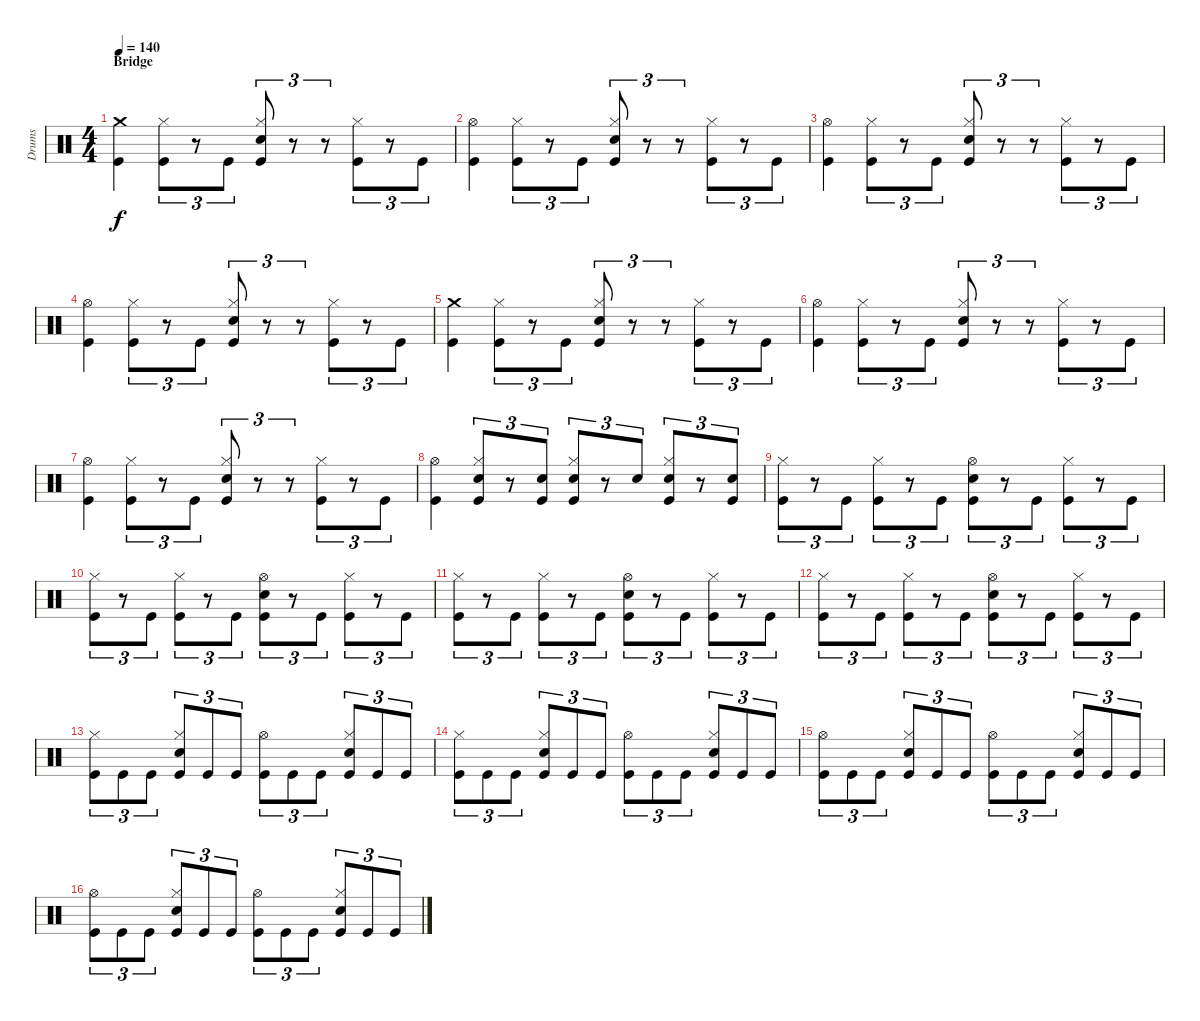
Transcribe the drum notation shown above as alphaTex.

\track ("Drums" "Drums") {instrument percussion}
\staff {score}
\articulation defaults
\ts (4 4)
\section ("" "Bridge")
\tempo 140
\clef neutral
\ks c
("Crash medium (hit)" "Kick (hit)").4{dy f} ("Hi-Hat (closed)" "Kick (hit)").8{tu (3 2)} r.8{tu (3 2)} "Kick (hit)".8{tu (3 2)} ("Hi-Hat (closed)" "Kick (hit)" "Electric Snare (hit)").8{tu (3 2)} r.8{tu (3 2)} r.8{tu (3 2)} ("Hi-Hat (closed)" "Kick (hit)").8{tu (3 2)} r.8{tu (3 2)} "Kick (hit)".8{tu (3 2)} |
("Hi-Hat (open)" "Kick (hit)").4 ("Hi-Hat (closed)" "Kick (hit)").8{tu (3 2)} r.8{tu (3 2)} "Kick (hit)".8{tu (3 2)} ("Hi-Hat (closed)" "Kick (hit)" "Electric Snare (hit)").8{tu (3 2)} r.8{tu (3 2)} r.8{tu (3 2)} ("Hi-Hat (closed)" "Kick (hit)").8{tu (3 2)} r.8{tu (3 2)} "Kick (hit)".8{tu (3 2)} |
("Hi-Hat (open)" "Kick (hit)").4 ("Hi-Hat (closed)" "Kick (hit)").8{tu (3 2)} r.8{tu (3 2)} "Kick (hit)".8{tu (3 2)} ("Hi-Hat (closed)" "Kick (hit)" "Electric Snare (hit)").8{tu (3 2)} r.8{tu (3 2)} r.8{tu (3 2)} ("Hi-Hat (closed)" "Kick (hit)").8{tu (3 2)} r.8{tu (3 2)} "Kick (hit)".8{tu (3 2)} |
("Hi-Hat (open)" "Kick (hit)").4 ("Hi-Hat (closed)" "Kick (hit)").8{tu (3 2)} r.8{tu (3 2)} "Kick (hit)".8{tu (3 2)} ("Hi-Hat (closed)" "Kick (hit)" "Electric Snare (hit)").8{tu (3 2)} r.8{tu (3 2)} r.8{tu (3 2)} ("Hi-Hat (closed)" "Kick (hit)").8{tu (3 2)} r.8{tu (3 2)} "Kick (hit)".8{tu (3 2)} |
("Crash medium (hit)" "Kick (hit)").4 ("Hi-Hat (closed)" "Kick (hit)").8{tu (3 2)} r.8{tu (3 2)} "Kick (hit)".8{tu (3 2)} ("Hi-Hat (closed)" "Kick (hit)" "Electric Snare (hit)").8{tu (3 2)} r.8{tu (3 2)} r.8{tu (3 2)} ("Hi-Hat (closed)" "Kick (hit)").8{tu (3 2)} r.8{tu (3 2)} "Kick (hit)".8{tu (3 2)} |
("Hi-Hat (open)" "Kick (hit)").4 ("Hi-Hat (closed)" "Kick (hit)").8{tu (3 2)} r.8{tu (3 2)} "Kick (hit)".8{tu (3 2)} ("Hi-Hat (closed)" "Kick (hit)" "Electric Snare (hit)").8{tu (3 2)} r.8{tu (3 2)} r.8{tu (3 2)} ("Hi-Hat (closed)" "Kick (hit)").8{tu (3 2)} r.8{tu (3 2)} "Kick (hit)".8{tu (3 2)} |
("Hi-Hat (open)" "Kick (hit)").4 ("Hi-Hat (closed)" "Kick (hit)").8{tu (3 2)} r.8{tu (3 2)} "Kick (hit)".8{tu (3 2)} ("Hi-Hat (closed)" "Kick (hit)" "Electric Snare (hit)").8{tu (3 2)} r.8{tu (3 2)} r.8{tu (3 2)} ("Hi-Hat (closed)" "Kick (hit)").8{tu (3 2)} r.8{tu (3 2)} "Kick (hit)".8{tu (3 2)} |
("Hi-Hat (open)" "Kick (hit)").4 ("Hi-Hat (closed)" "Kick (hit)" "Electric Snare (hit)").8{tu (3 2)} r.8{tu (3 2)} ("Kick (hit)" "Electric Snare (hit)").8{tu (3 2)} ("Hi-Hat (closed)" "Kick (hit)" "Electric Snare (hit)").8{tu (3 2)} r.8{tu (3 2)} "Electric Snare (hit)".8{tu (3 2)} ("Hi-Hat (closed)" "Kick (hit)" "Electric Snare (hit)").8{tu (3 2)} r.8{tu (3 2)} ("Kick (hit)" "Electric Snare (hit)").8{tu (3 2)} |
("Hi-Hat (closed)" "Kick (hit)").8{tu (3 2)} r.8{tu (3 2)} "Kick (hit)".8{tu (3 2)} ("Hi-Hat (closed)" "Kick (hit)").8{tu (3 2)} r.8{tu (3 2)} "Kick (hit)".8{tu (3 2)} ("Hi-Hat (open)" "Electric Snare (hit)" "Kick (hit)").8{tu (3 2)} r.8{tu (3 2)} "Kick (hit)".8{tu (3 2)} ("Hi-Hat (closed)" "Kick (hit)").8{tu (3 2)} r.8{tu (3 2)} "Kick (hit)".8{tu (3 2)} |
("Hi-Hat (closed)" "Kick (hit)").8{tu (3 2)} r.8{tu (3 2)} "Kick (hit)".8{tu (3 2)} ("Hi-Hat (closed)" "Kick (hit)").8{tu (3 2)} r.8{tu (3 2)} "Kick (hit)".8{tu (3 2)} ("Hi-Hat (open)" "Electric Snare (hit)" "Kick (hit)").8{tu (3 2)} r.8{tu (3 2)} "Kick (hit)".8{tu (3 2)} ("Hi-Hat (closed)" "Kick (hit)").8{tu (3 2)} r.8{tu (3 2)} "Kick (hit)".8{tu (3 2)} |
("Hi-Hat (closed)" "Kick (hit)").8{tu (3 2)} r.8{tu (3 2)} "Kick (hit)".8{tu (3 2)} ("Hi-Hat (closed)" "Kick (hit)").8{tu (3 2)} r.8{tu (3 2)} "Kick (hit)".8{tu (3 2)} ("Hi-Hat (open)" "Electric Snare (hit)" "Kick (hit)").8{tu (3 2)} r.8{tu (3 2)} "Kick (hit)".8{tu (3 2)} ("Hi-Hat (closed)" "Kick (hit)").8{tu (3 2)} r.8{tu (3 2)} "Kick (hit)".8{tu (3 2)} |
("Hi-Hat (closed)" "Kick (hit)").8{tu (3 2)} r.8{tu (3 2)} "Kick (hit)".8{tu (3 2)} ("Hi-Hat (closed)" "Kick (hit)").8{tu (3 2)} r.8{tu (3 2)} "Kick (hit)".8{tu (3 2)} ("Hi-Hat (open)" "Electric Snare (hit)" "Kick (hit)").8{tu (3 2)} r.8{tu (3 2)} "Kick (hit)".8{tu (3 2)} ("Hi-Hat (closed)" "Kick (hit)").8{tu (3 2)} r.8{tu (3 2)} "Kick (hit)".8{tu (3 2)} |
("Hi-Hat (closed)" "Kick (hit)").8{tu (3 2)} "Kick (hit)".8{tu (3 2)} "Kick (hit)".8{tu (3 2)} ("Hi-Hat (closed)" "Electric Snare (hit)" "Kick (hit)").8{tu (3 2)} "Kick (hit)".8{tu (3 2)} "Kick (hit)".8{tu (3 2)} ("Hi-Hat (open)" "Kick (hit)").8{tu (3 2)} "Kick (hit)".8{tu (3 2)} "Kick (hit)".8{tu (3 2)} ("Hi-Hat (closed)" "Electric Snare (hit)" "Kick (hit)").8{tu (3 2)} "Kick (hit)".8{tu (3 2)} "Kick (hit)".8{tu (3 2)} |
("Hi-Hat (closed)" "Kick (hit)").8{tu (3 2)} "Kick (hit)".8{tu (3 2)} "Kick (hit)".8{tu (3 2)} ("Hi-Hat (closed)" "Electric Snare (hit)" "Kick (hit)").8{tu (3 2)} "Kick (hit)".8{tu (3 2)} "Kick (hit)".8{tu (3 2)} ("Hi-Hat (open)" "Kick (hit)").8{tu (3 2)} "Kick (hit)".8{tu (3 2)} "Kick (hit)".8{tu (3 2)} ("Hi-Hat (closed)" "Electric Snare (hit)" "Kick (hit)").8{tu (3 2)} "Kick (hit)".8{tu (3 2)} "Kick (hit)".8{tu (3 2)} |
("Hi-Hat (open)" "Kick (hit)").8{tu (3 2)} "Kick (hit)".8{tu (3 2)} "Kick (hit)".8{tu (3 2)} ("Hi-Hat (closed)" "Electric Snare (hit)" "Kick (hit)").8{tu (3 2)} "Kick (hit)".8{tu (3 2)} "Kick (hit)".8{tu (3 2)} ("Hi-Hat (open)" "Kick (hit)").8{tu (3 2)} "Kick (hit)".8{tu (3 2)} "Kick (hit)".8{tu (3 2)} ("Hi-Hat (closed)" "Electric Snare (hit)" "Kick (hit)").8{tu (3 2)} "Kick (hit)".8{tu (3 2)} "Kick (hit)".8{tu (3 2)} |
("Hi-Hat (open)" "Kick (hit)").8{tu (3 2)} "Kick (hit)".8{tu (3 2)} "Kick (hit)".8{tu (3 2)} ("Hi-Hat (closed)" "Electric Snare (hit)" "Kick (hit)").8{tu (3 2)} "Kick (hit)".8{tu (3 2)} "Kick (hit)".8{tu (3 2)} ("Hi-Hat (open)" "Kick (hit)").8{tu (3 2)} "Kick (hit)".8{tu (3 2)} "Kick (hit)".8{tu (3 2)} ("Hi-Hat (closed)" "Electric Snare (hit)" "Kick (hit)").8{tu (3 2)} "Kick (hit)".8{tu (3 2)} "Kick (hit)".8{tu (3 2)}
